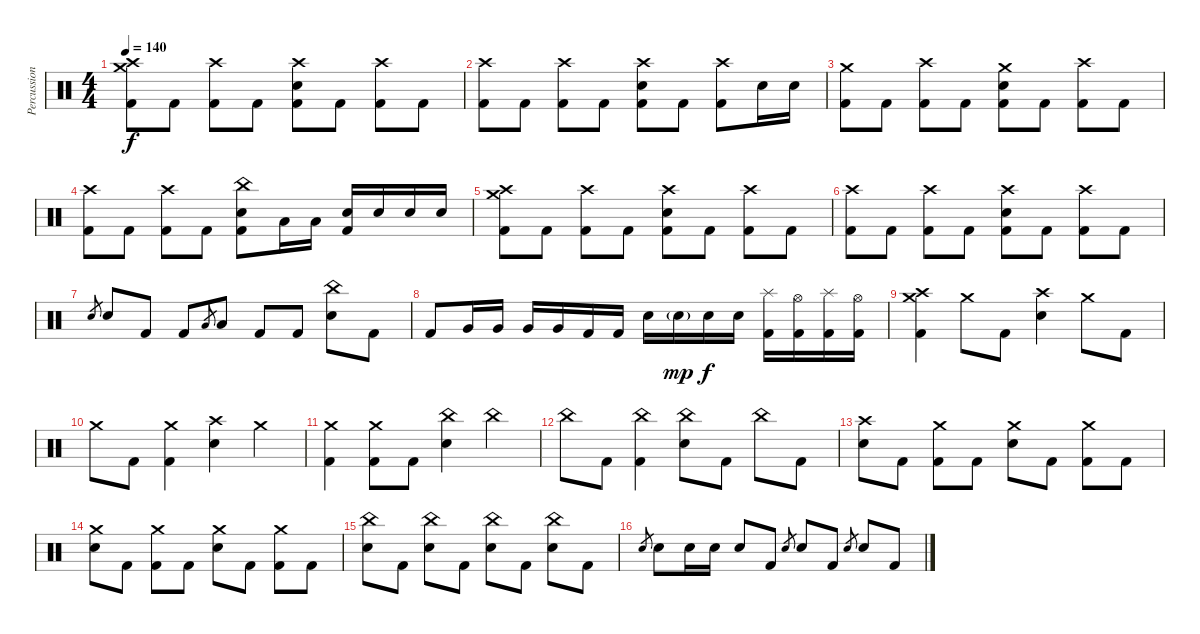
\track ("Percussion" "Percussion") {instrument percussion}
\staff {score}
\articulation defaults
\ts (4 4)
\tempo 140
\clef neutral
\ks c
("Crash high (hit)" "Crash medium (hit)" "Kick (hit) 2").8{dy f} "Kick (hit) 2".8 ("Crash high (hit)" "Kick (hit) 2").8 "Kick (hit) 2".8 ("Crash high (hit)" "Electric Snare (hit)" "Kick (hit) 2").8 "Kick (hit) 2".8 ("Crash high (hit)" "Kick (hit) 2").8 "Kick (hit) 2".8 |
("Crash high (hit)" "Kick (hit) 2").8 "Kick (hit) 2".8 ("Crash high (hit)" "Kick (hit) 2").8 "Kick (hit) 2".8 ("Crash high (hit)" "Electric Snare (hit)" "Kick (hit) 2").8 "Kick (hit) 2".8 ("Crash high (hit)" "Kick (hit) 2").8 "Electric Snare (hit)".16 "Electric Snare (hit)".16 |
("Crash medium (hit)" "Kick (hit) 2").8 "Kick (hit) 2".8 ("Crash high (hit)" "Kick (hit) 2").8 "Kick (hit) 2".8 ("Crash medium (hit)" "Electric Snare (hit)" "Kick (hit) 2").8 "Kick (hit) 2".8 ("Crash high (hit)" "Kick (hit) 2").8 "Kick (hit) 2".8 |
("Crash high (hit)" "Kick (hit) 2").8 "Kick (hit) 2".8 ("Crash high (hit)" "Kick (hit) 2").8 "Kick (hit) 2".8 ("China (hit)" "Electric Snare (hit)" "Kick (hit) 2").8 "Low Tom (hit)".16 "Low Tom (hit)".16 ("Electric Snare (hit)" "Kick (hit) 2").16 "Electric Snare (hit)".16 "Electric Snare (hit)".16 "Electric Snare (hit)".16 |
("Crash high (hit)" "Crash medium (hit)" "Kick (hit) 2").8 "Kick (hit) 2".8 ("Crash high (hit)" "Kick (hit) 2").8 "Kick (hit) 2".8 ("Crash high (hit)" "Electric Snare (hit)" "Kick (hit) 2").8 "Kick (hit) 2".8 ("Crash high (hit)" "Kick (hit) 2").8 "Kick (hit) 2".8 |
("Crash high (hit)" "Kick (hit) 2").8 "Kick (hit) 2".8 ("Crash high (hit)" "Kick (hit) 2").8 "Kick (hit) 2".8 ("Crash high (hit)" "Electric Snare (hit)" "Kick (hit) 2").8 "Kick (hit) 2".8 ("Crash high (hit)" "Kick (hit) 2").8 "Kick (hit) 2".8 |
"Electric Snare (hit)".8{gr} "Electric Snare (hit)".8 "Kick (hit) 2".8 "Kick (hit) 2".8 "Low Tom (hit)".8{gr} "Low Tom (hit)".8 "Kick (hit) 2".8 "Kick (hit) 2".8 ("China (hit)" "Electric Snare (hit)").8 "Kick (hit) 2".8 |
"Kick (hit) 2".8 "Very Low Tom (hit)".16 "Very Low Tom (hit)".16 "Very Low Tom (hit)".16 "Very Low Tom (hit)".16 "Kick (hit) 2".16 "Kick (hit) 2".16 "Electric Snare (hit)".16 "Electric Snare (hit)"{g}.16{dy mp} "Electric Snare (hit)".16{dy f} "Electric Snare (hit)".16 ("Splash (hit)" "Kick (hit) 2").16 ("Hi-Hat (open)" "Kick (hit) 2").16 ("Splash (hit)" "Kick (hit) 2").16 ("Hi-Hat (open)" "Kick (hit) 2").16 |
("Crash medium (hit)" "Crash high (hit)" "Kick (hit) 2").4 "Crash medium (hit)".8 "Kick (hit) 2".8 ("Crash high (hit)" "Electric Snare (hit)").4 "Crash medium (hit)".8 "Kick (hit) 2".8 |
"Crash medium (hit)".8 "Kick (hit) 2".8 ("Crash medium (hit)" "Kick (hit) 2").4 ("Crash high (hit)" "Electric Snare (hit)").4 "Crash medium (hit)".4 |
("Crash medium (hit)" "Kick (hit) 2").4 ("Crash medium (hit)" "Kick (hit) 2").8 "Kick (hit) 2".8 ("China (hit)" "Electric Snare (hit)").4 "China (hit)".4 |
"China (hit)".8 "Kick (hit) 2".8 ("China (hit)" "Kick (hit) 2").4 ("China (hit)" "Electric Snare (hit)").8 "Kick (hit) 2".8 "China (hit)".8 "Kick (hit) 2".8 |
("Crash high (hit)" "Electric Snare (hit)").8 "Kick (hit) 2".8 ("Crash medium (hit)" "Kick (hit) 2").8 "Kick (hit) 2".8 ("Crash medium (hit)" "Electric Snare (hit)").8 "Kick (hit) 2".8 ("Crash medium (hit)" "Kick (hit) 2").8 "Kick (hit) 2".8 |
("Crash medium (hit)" "Electric Snare (hit)").8 "Kick (hit) 2".8 ("Crash medium (hit)" "Kick (hit) 2").8 "Kick (hit) 2".8 ("Crash medium (hit)" "Electric Snare (hit)").8 "Kick (hit) 2".8 ("Crash medium (hit)" "Kick (hit) 2").8 "Kick (hit) 2".8 |
("China (hit)" "Electric Snare (hit)").8 "Kick (hit) 2".8 ("China (hit)" "Electric Snare (hit)").8 "Kick (hit) 2".8 ("China (hit)" "Electric Snare (hit)").8 "Kick (hit) 2".8 ("China (hit)" "Electric Snare (hit)").8 "Kick (hit) 2".8 |
"Electric Snare (hit)".8{gr} "Electric Snare (hit)".8 "Electric Snare (hit)".16 "Electric Snare (hit)".16 "Electric Snare (hit)".8 "Kick (hit) 2".8 "Electric Snare (hit)".8{gr} "Electric Snare (hit)".8 "Kick (hit) 2".8 "Electric Snare (hit)".8{gr} "Electric Snare (hit)".8 "Kick (hit) 2".8
